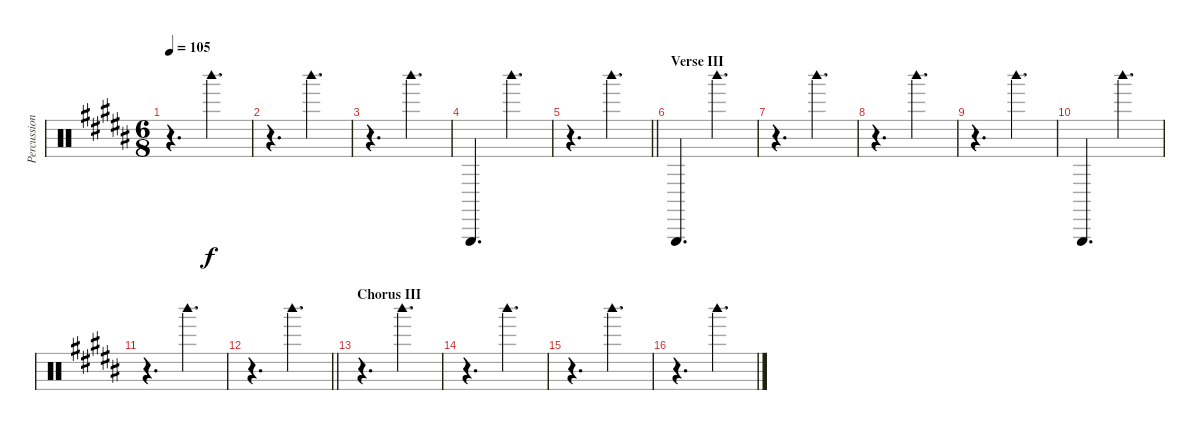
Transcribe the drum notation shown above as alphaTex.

\track ("Percussion" "Percussion") {instrument percussion}
\staff {score}
\articulation defaults
\ts (6 8)
\tempo 105
\clef neutral
\ks b
r.4{d dy f} "Woodblock high (hit)".4{d} |
r.4{d} "Woodblock high (hit)".4{d} |
r.4{d} "Woodblock high (hit)".4{d} |
"Triangle (hit)".4{d} "Woodblock high (hit)".4{d} |
\barLineRight lightlight
r.4{d} "Woodblock high (hit)".4{d} |
\section ("" "Verse III")
"Triangle (hit)".4{d} "Woodblock high (hit)".4{d} |
r.4{d} "Woodblock high (hit)".4{d} |
r.4{d} "Woodblock high (hit)".4{d} |
r.4{d} "Woodblock high (hit)".4{d} |
"Triangle (hit)".4{d} "Woodblock high (hit)".4{d} |
r.4{d} "Woodblock high (hit)".4{d} |
\barLineRight lightlight
r.4{d} "Woodblock high (hit)".4{d} |
\section ("" "Chorus III")
r.4{d} "Woodblock high (hit)".4{d} |
r.4{d} "Woodblock high (hit)".4{d} |
r.4{d} "Woodblock high (hit)".4{d} |
r.4{d} "Woodblock high (hit)".4{d}
